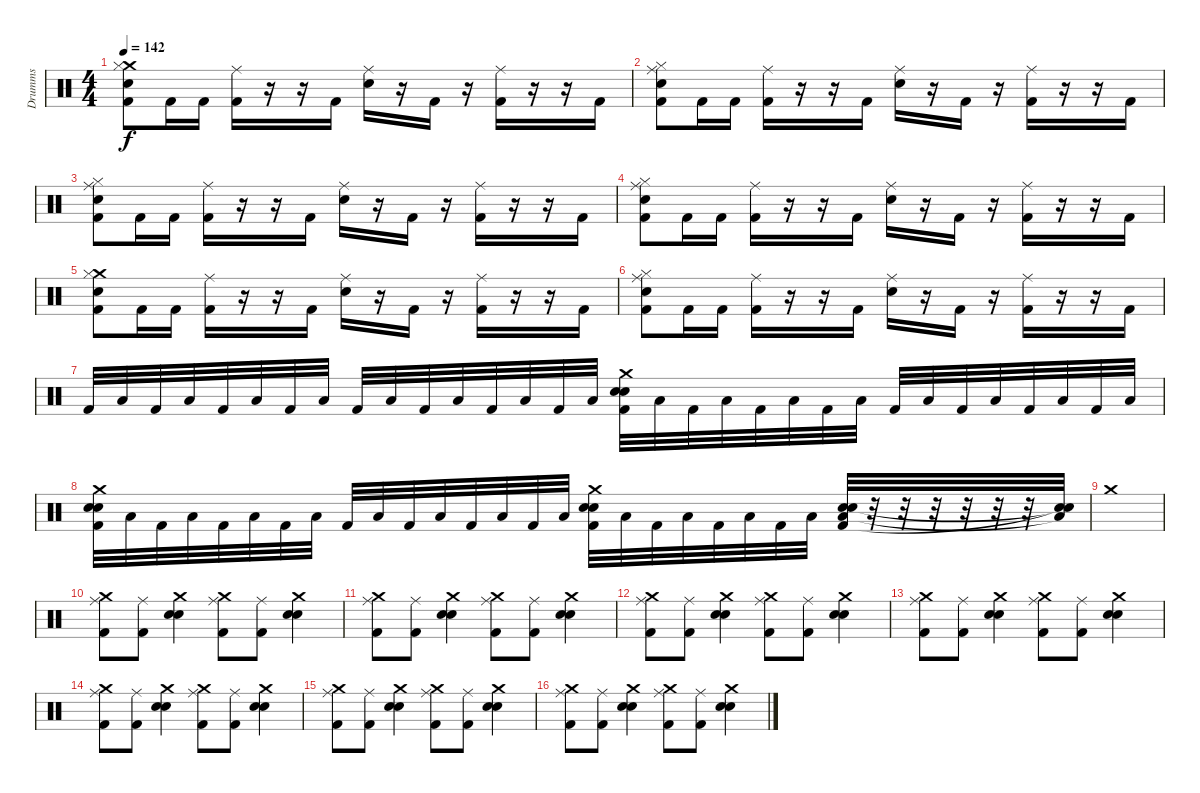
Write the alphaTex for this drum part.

\track ("Drumms" "Drumms") {instrument percussion}
\staff {score}
\articulation defaults
\ts (4 4)
\tempo 142
\clef neutral
\ks c
("Crash medium (hit)" "Hi-Hat (closed)" "Kick (hit) 2" "Snare (hit) 2").8{dy f} "Kick (hit) 2".16 "Kick (hit) 2".16 ("Ride (middle)" "Kick (hit) 2").16 r.16 r.16 "Kick (hit) 2".16 ("Ride (middle)" "Snare (hit) 2").16 r.16 "Kick (hit) 2".16 r.16 ("Ride (middle)" "Kick (hit) 2").16 r.16 r.16 "Kick (hit) 2".16 |
("Ride (middle)" "Hi-Hat (closed)" "Kick (hit) 2" "Snare (hit) 2").8 "Kick (hit) 2".16 "Kick (hit) 2".16 ("Ride (middle)" "Kick (hit) 2").16 r.16 r.16 "Kick (hit) 2".16 ("Ride (middle)" "Snare (hit) 2").16 r.16 "Kick (hit) 2".16 r.16 ("Ride (middle)" "Kick (hit) 2").16 r.16 r.16 "Kick (hit) 2".16 |
("Ride (middle)" "Hi-Hat (closed)" "Kick (hit) 2" "Snare (hit) 2").8 "Kick (hit) 2".16 "Kick (hit) 2".16 ("Ride (middle)" "Kick (hit) 2").16 r.16 r.16 "Kick (hit) 2".16 ("Ride (middle)" "Snare (hit) 2").16 r.16 "Kick (hit) 2".16 r.16 ("Ride (middle)" "Kick (hit) 2").16 r.16 r.16 "Kick (hit) 2".16 |
("Ride (middle)" "Hi-Hat (closed)" "Kick (hit) 2" "Snare (hit) 2").8 "Kick (hit) 2".16 "Kick (hit) 2".16 ("Ride (middle)" "Kick (hit) 2").16 r.16 r.16 "Kick (hit) 2".16 ("Ride (middle)" "Snare (hit) 2").16 r.16 "Kick (hit) 2".16 r.16 ("Ride (middle)" "Kick (hit) 2").16 r.16 r.16 "Kick (hit) 2".16 |
("Crash medium (hit)" "Hi-Hat (closed)" "Kick (hit) 2" "Snare (hit) 2").8 "Kick (hit) 2".16 "Kick (hit) 2".16 ("Ride (middle)" "Kick (hit) 2").16 r.16 r.16 "Kick (hit) 2".16 ("Ride (middle)" "Snare (hit) 2").16 r.16 "Kick (hit) 2".16 r.16 ("Ride (middle)" "Kick (hit) 2").16 r.16 r.16 "Kick (hit) 2".16 |
("Ride (middle)" "Hi-Hat (closed)" "Kick (hit) 2" "Snare (hit) 2").8 "Kick (hit) 2".16 "Kick (hit) 2".16 ("Ride (middle)" "Kick (hit) 2").16 r.16 r.16 "Kick (hit) 2".16 ("Ride (middle)" "Snare (hit) 2").16 r.16 "Kick (hit) 2".16 r.16 ("Ride (middle)" "Kick (hit) 2").16 r.16 r.16 "Kick (hit) 2".16 |
"Kick (hit) 2".32 "Low Floor Tom (hit)".32 "Kick (hit) 2".32 "Low Floor Tom (hit)".32 "Kick (hit) 2".32 "Low Floor Tom (hit)".32 "Kick (hit) 2".32 "Low Floor Tom (hit)".32 "Kick (hit) 2".32 "Low Floor Tom (hit)".32 "Kick (hit) 2".32 "Low Floor Tom (hit)".32 "Kick (hit) 2".32 "Low Floor Tom (hit)".32 "Kick (hit) 2".32 "Low Floor Tom (hit)".32 ("Crash medium (hit)" "Snare (hit) 2" "Kick (hit) 2" "Electric Snare (hit)").32 "Low Floor Tom (hit)".32 "Kick (hit) 2".32 "Low Floor Tom (hit)".32 "Kick (hit) 2".32 "Low Floor Tom (hit)".32 "Kick (hit) 2".32 "Low Floor Tom (hit)".32 "Kick (hit) 2".32 "Low Floor Tom (hit)".32 "Kick (hit) 2".32 "Low Floor Tom (hit)".32 "Kick (hit) 2".32 "Low Floor Tom (hit)".32 "Kick (hit) 2".32 "Low Floor Tom (hit)".32 |
("Crash medium (hit)" "Snare (hit) 2" "Kick (hit) 2" "Electric Snare (hit)").32 "Low Floor Tom (hit)".32 "Kick (hit) 2".32 "Low Floor Tom (hit)".32 "Kick (hit) 2".32 "Low Floor Tom (hit)".32 "Kick (hit) 2".32 "Low Floor Tom (hit)".32 "Kick (hit) 2".32 "Low Floor Tom (hit)".32 "Kick (hit) 2".32 "Low Floor Tom (hit)".32 "Kick (hit) 2".32 "Low Floor Tom (hit)".32 "Kick (hit) 2".32 "Low Floor Tom (hit)".32 ("Crash medium (hit)" "Snare (hit) 2" "Kick (hit) 2" "Electric Snare (hit)").32 "Low Floor Tom (hit)".32 "Kick (hit) 2".32 "Low Floor Tom (hit)".32 "Kick (hit) 2".32 "Low Floor Tom (hit)".32 "Kick (hit) 2".32 "Low Floor Tom (hit)".32 ("Low Floor Tom (hit)" "Snare (hit) 2" "Kick (hit) 2" "Electric Snare (hit)").32 r.32 r.32 r.32 r.32 r.32 r.32 ("Low Floor Tom (hit)"{t} "Snare (hit)"{t} "Snare (hit)"{t}).32 |
"Crash medium (hit)".1 |
("Crash medium (hit)" "Ride (middle)" "Kick (hit) 2").8 ("Ride (middle)" "Kick (hit) 2").8 ("Crash medium (hit)" "Snare (hit) 2" "Electric Snare (hit)").4 ("Crash medium (hit)" "Ride (middle)" "Kick (hit) 2").8 ("Ride (middle)" "Kick (hit) 2").8 ("Crash medium (hit)" "Electric Snare (hit)" "Snare (hit) 2").4 |
("Crash medium (hit)" "Ride (middle)" "Kick (hit) 2").8 ("Ride (middle)" "Kick (hit) 2").8 ("Crash medium (hit)" "Snare (hit) 2" "Electric Snare (hit)").4 ("Crash medium (hit)" "Ride (middle)" "Kick (hit) 2").8 ("Ride (middle)" "Kick (hit) 2").8 ("Crash medium (hit)" "Electric Snare (hit)" "Snare (hit) 2").4 |
("Crash medium (hit)" "Ride (middle)" "Kick (hit) 2").8 ("Ride (middle)" "Kick (hit) 2").8 ("Crash medium (hit)" "Snare (hit) 2" "Electric Snare (hit)").4 ("Crash medium (hit)" "Ride (middle)" "Kick (hit) 2").8 ("Ride (middle)" "Kick (hit) 2").8 ("Crash medium (hit)" "Electric Snare (hit)" "Snare (hit) 2").4 |
("Crash medium (hit)" "Ride (middle)" "Kick (hit) 2").8 ("Ride (middle)" "Kick (hit) 2").8 ("Crash medium (hit)" "Snare (hit) 2" "Electric Snare (hit)").4 ("Crash medium (hit)" "Ride (middle)" "Kick (hit) 2").8 ("Ride (middle)" "Kick (hit) 2").8 ("Crash medium (hit)" "Electric Snare (hit)" "Snare (hit) 2").4 |
("Crash medium (hit)" "Ride (middle)" "Kick (hit) 2").8 ("Ride (middle)" "Kick (hit) 2").8 ("Crash medium (hit)" "Snare (hit) 2" "Electric Snare (hit)").4 ("Crash medium (hit)" "Ride (middle)" "Kick (hit) 2").8 ("Ride (middle)" "Kick (hit) 2").8 ("Crash medium (hit)" "Electric Snare (hit)" "Snare (hit) 2").4 |
("Crash medium (hit)" "Ride (middle)" "Kick (hit) 2").8 ("Ride (middle)" "Kick (hit) 2").8 ("Crash medium (hit)" "Snare (hit) 2" "Electric Snare (hit)").4 ("Crash medium (hit)" "Ride (middle)" "Kick (hit) 2").8 ("Ride (middle)" "Kick (hit) 2").8 ("Crash medium (hit)" "Electric Snare (hit)" "Snare (hit) 2").4 |
("Crash medium (hit)" "Ride (middle)" "Kick (hit) 2").8 ("Ride (middle)" "Kick (hit) 2").8 ("Crash medium (hit)" "Snare (hit) 2" "Electric Snare (hit)").4 ("Crash medium (hit)" "Ride (middle)" "Kick (hit) 2").8 ("Ride (middle)" "Kick (hit) 2").8 ("Crash medium (hit)" "Electric Snare (hit)" "Snare (hit) 2").4
